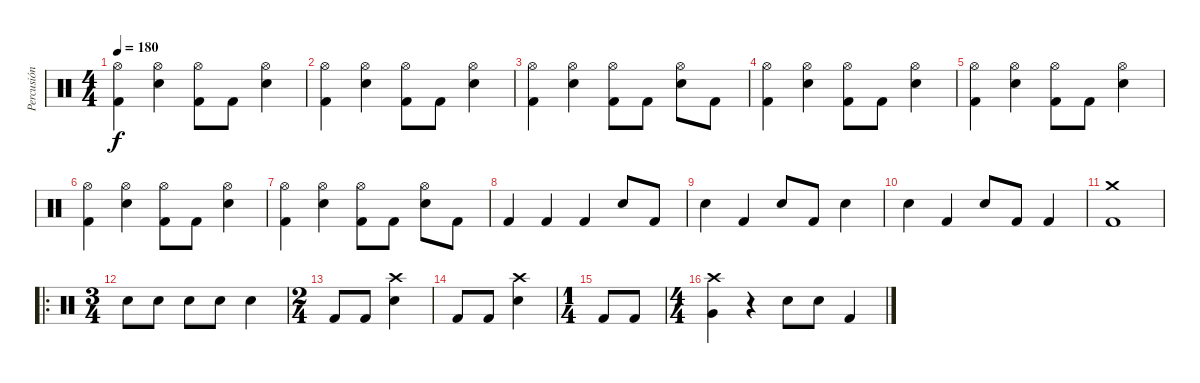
\track ("Percusión" "Percusión") {instrument percussion}
\staff {score}
\articulation defaults
\ts (4 4)
\tempo 180
\clef neutral
\ks c
("Kick (hit) 2" "Hi-Hat (open)").4{dy f} ("Electric Snare (hit)" "Hi-Hat (open)").4 ("Kick (hit) 2" "Hi-Hat (open)").8 "Kick (hit) 2".8 ("Electric Snare (hit)" "Hi-Hat (open)").4 |
("Kick (hit) 2" "Hi-Hat (open)").4 ("Electric Snare (hit)" "Hi-Hat (open)").4 ("Kick (hit) 2" "Hi-Hat (open)").8 "Kick (hit) 2".8 ("Electric Snare (hit)" "Hi-Hat (open)").4 |
("Kick (hit) 2" "Hi-Hat (open)").4 ("Electric Snare (hit)" "Hi-Hat (open)").4 ("Kick (hit) 2" "Hi-Hat (open)").8 "Kick (hit) 2".8 ("Electric Snare (hit)" "Hi-Hat (open)").8 "Kick (hit) 2".8 |
("Kick (hit) 2" "Hi-Hat (open)").4 ("Electric Snare (hit)" "Hi-Hat (open)").4 ("Kick (hit) 2" "Hi-Hat (open)").8 "Kick (hit) 2".8 ("Electric Snare (hit)" "Hi-Hat (open)").4 |
("Kick (hit) 2" "Hi-Hat (open)").4 ("Electric Snare (hit)" "Hi-Hat (open)").4 ("Kick (hit) 2" "Hi-Hat (open)").8 "Kick (hit) 2".8 ("Electric Snare (hit)" "Hi-Hat (open)").4 |
("Kick (hit) 2" "Hi-Hat (open)").4 ("Electric Snare (hit)" "Hi-Hat (open)").4 ("Kick (hit) 2" "Hi-Hat (open)").8 "Kick (hit) 2".8 ("Electric Snare (hit)" "Hi-Hat (open)").4 |
("Kick (hit) 2" "Hi-Hat (open)").4 ("Electric Snare (hit)" "Hi-Hat (open)").4 ("Kick (hit) 2" "Hi-Hat (open)").8 "Kick (hit) 2".8 ("Electric Snare (hit)" "Hi-Hat (open)").8 "Kick (hit) 2".8 |
"Kick (hit) 2".4 "Kick (hit) 2".4 "Kick (hit) 2".4 "Electric Snare (hit)".8 "Kick (hit) 2".8 |
"Electric Snare (hit)".4 "Kick (hit) 2".4 "Electric Snare (hit)".8 "Kick (hit) 2".8 "Electric Snare (hit)".4 |
"Electric Snare (hit)".4 "Kick (hit) 2".4 "Electric Snare (hit)".8 "Kick (hit) 2".8 "Kick (hit) 2".4 |
("Kick (hit) 2" "Crash medium (hit)").1 |
\ro
\ts (3 4)
"Electric Snare (hit)".8 "Electric Snare (hit)".8 "Electric Snare (hit)".8 "Electric Snare (hit)".8 "Electric Snare (hit)".4 |
\ts (2 4)
"Kick (hit) 2".8 "Kick (hit) 2".8 ("Electric Snare (hit)" "Crash high (hit)").4 |
"Kick (hit) 2".8 "Kick (hit) 2".8 ("Electric Snare (hit)" "Crash high (hit)").4 |
\ts (1 4)
"Kick (hit) 2".8 "Kick (hit) 2".8 |
\ts (4 4)
("Very Low Tom (hit)" "Crash high (hit)").4 r.4 "Electric Snare (hit)".8 "Electric Snare (hit)".8 "Kick (hit) 2".4
